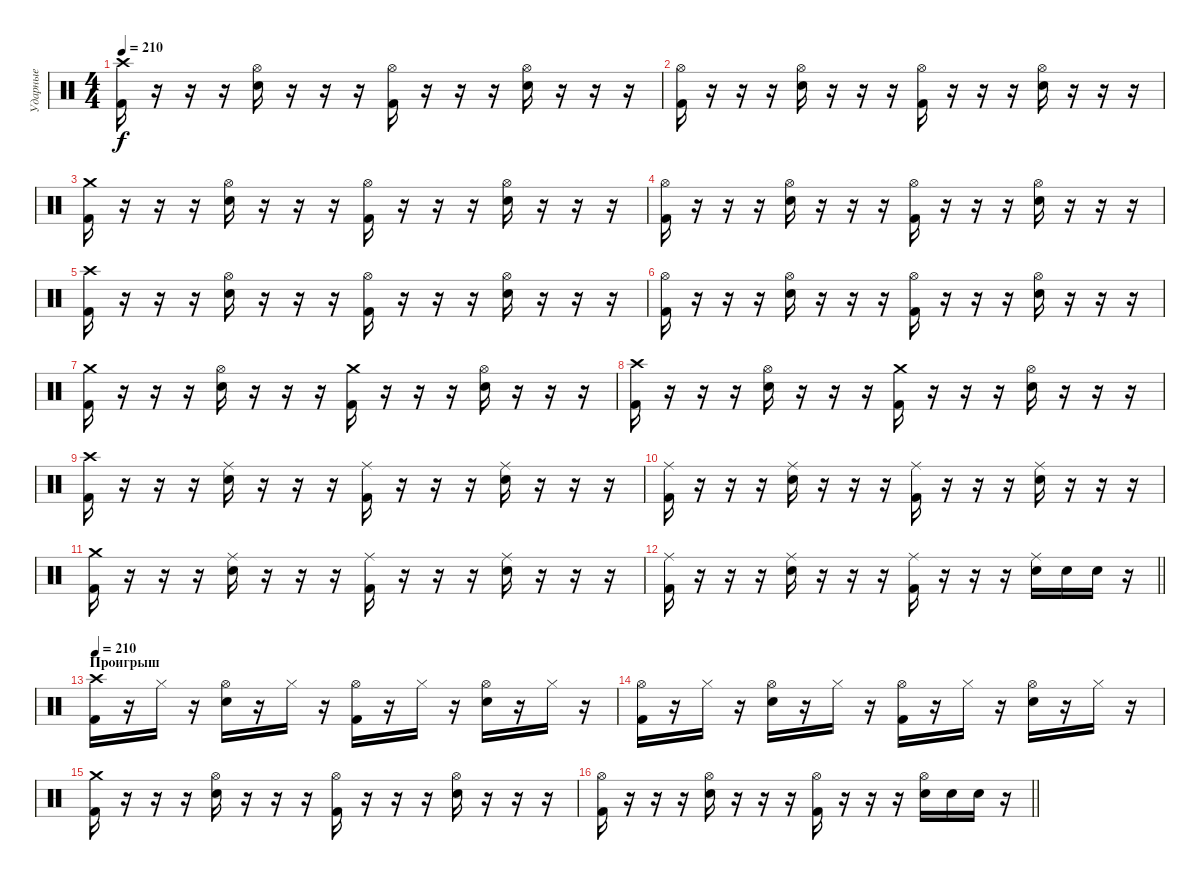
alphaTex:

\track ("Ударные" "Ударные") {instrument percussion}
\staff {score}
\articulation defaults
\ts (4 4)
\tempo 210
\clef neutral
\ks c
("Kick (hit) 2" "Crash high (hit)").16{dy f} r.16 r.16 r.16 ("Electric Snare (hit)" "Hi-Hat (open)").16 r.16 r.16 r.16 ("Kick (hit) 2" "Hi-Hat (open)").16 r.16 r.16 r.16 ("Electric Snare (hit)" "Hi-Hat (open)").16 r.16 r.16 r.16 |
("Kick (hit) 2" "Hi-Hat (open)").16 r.16 r.16 r.16 ("Electric Snare (hit)" "Hi-Hat (open)").16 r.16 r.16 r.16 ("Kick (hit) 2" "Hi-Hat (open)").16 r.16 r.16 r.16 ("Electric Snare (hit)" "Hi-Hat (open)").16 r.16 r.16 r.16 |
("Kick (hit) 2" "Crash medium (hit)").16 r.16 r.16 r.16 ("Electric Snare (hit)" "Hi-Hat (open)").16 r.16 r.16 r.16 ("Kick (hit) 2" "Hi-Hat (open)").16 r.16 r.16 r.16 ("Electric Snare (hit)" "Hi-Hat (open)").16 r.16 r.16 r.16 |
("Kick (hit) 2" "Hi-Hat (open)").16 r.16 r.16 r.16 ("Electric Snare (hit)" "Hi-Hat (open)").16 r.16 r.16 r.16 ("Kick (hit) 2" "Hi-Hat (open)").16 r.16 r.16 r.16 ("Electric Snare (hit)" "Hi-Hat (open)").16 r.16 r.16 r.16 |
("Kick (hit) 2" "Crash high (hit)").16 r.16 r.16 r.16 ("Electric Snare (hit)" "Hi-Hat (open)").16 r.16 r.16 r.16 ("Kick (hit) 2" "Hi-Hat (open)").16 r.16 r.16 r.16 ("Electric Snare (hit)" "Hi-Hat (open)").16 r.16 r.16 r.16 |
("Kick (hit) 2" "Hi-Hat (open)").16 r.16 r.16 r.16 ("Electric Snare (hit)" "Hi-Hat (open)").16 r.16 r.16 r.16 ("Kick (hit) 2" "Hi-Hat (open)").16 r.16 r.16 r.16 ("Electric Snare (hit)" "Hi-Hat (open)").16 r.16 r.16 r.16 |
("Kick (hit) 2" "Crash medium (hit)").16 r.16 r.16 r.16 ("Electric Snare (hit)" "Hi-Hat (open)").16 r.16 r.16 r.16 ("Crash medium (hit)" "Kick (hit) 2").16 r.16 r.16 r.16 ("Electric Snare (hit)" "Hi-Hat (open)").16 r.16 r.16 r.16 |
("Kick (hit) 2" "Crash high (hit)").16 r.16 r.16 r.16 ("Electric Snare (hit)" "Hi-Hat (open)").16 r.16 r.16 r.16 ("Kick (hit) 2" "Crash medium (hit)").16 r.16 r.16 r.16 ("Electric Snare (hit)" "Hi-Hat (open)").16 r.16 r.16 r.16 |
("Kick (hit) 2" "Crash high (hit)").16 r.16 r.16 r.16 ("Electric Snare (hit)" "Ride (middle)").16 r.16 r.16 r.16 ("Kick (hit) 2" "Ride (middle)").16 r.16 r.16 r.16 ("Electric Snare (hit)" "Ride (middle)").16 r.16 r.16 r.16 |
("Kick (hit) 2" "Ride (middle)").16 r.16 r.16 r.16 ("Electric Snare (hit)" "Ride (middle)").16 r.16 r.16 r.16 ("Kick (hit) 2" "Ride (middle)").16 r.16 r.16 r.16 ("Electric Snare (hit)" "Ride (middle)").16 r.16 r.16 r.16 |
("Kick (hit) 2" "Crash medium (hit)").16 r.16 r.16 r.16 ("Electric Snare (hit)" "Ride (middle)").16 r.16 r.16 r.16 ("Kick (hit) 2" "Ride (middle)").16 r.16 r.16 r.16 ("Electric Snare (hit)" "Ride (middle)").16 r.16 r.16 r.16 |
\barLineRight lightlight
("Kick (hit) 2" "Ride (middle)").16 r.16 r.16 r.16 ("Electric Snare (hit)" "Ride (middle)").16 r.16 r.16 r.16 ("Kick (hit) 2" "Ride (middle)").16 r.16 r.16 r.16 ("Electric Snare (hit)" "Ride (middle)").16 "Electric Snare (hit)".16 "Electric Snare (hit)".16 r.16 |
\section ("" "Проигрыш")
\tempo 210
("Kick (hit) 2" "Crash high (hit)").16 r.16 "Hi-Hat (closed)".16 r.16 ("Electric Snare (hit)" "Hi-Hat (open)").16 r.16 "Hi-Hat (closed)".16 r.16 ("Kick (hit) 2" "Hi-Hat (open)").16 r.16 "Hi-Hat (closed)".16 r.16 ("Electric Snare (hit)" "Hi-Hat (open)").16 r.16 "Hi-Hat (closed)".16 r.16 |
("Kick (hit) 2" "Hi-Hat (open)").16 r.16 "Hi-Hat (closed)".16 r.16 ("Electric Snare (hit)" "Hi-Hat (open)").16 r.16 "Hi-Hat (closed)".16 r.16 ("Kick (hit) 2" "Hi-Hat (open)").16 r.16 "Hi-Hat (closed)".16 r.16 ("Electric Snare (hit)" "Hi-Hat (open)").16 r.16 "Hi-Hat (closed)".16 r.16 |
("Kick (hit) 2" "Crash medium (hit)").16 r.16 r.16 r.16 ("Electric Snare (hit)" "Hi-Hat (open)").16 r.16 r.16 r.16 ("Kick (hit) 2" "Hi-Hat (open)").16 r.16 r.16 r.16 ("Electric Snare (hit)" "Hi-Hat (open)").16 r.16 r.16 r.16 |
\barLineRight lightlight
("Kick (hit) 2" "Hi-Hat (open)").16 r.16 r.16 r.16 ("Electric Snare (hit)" "Hi-Hat (open)").16 r.16 r.16 r.16 ("Kick (hit) 2" "Hi-Hat (open)").16 r.16 r.16 r.16 ("Electric Snare (hit)" "Hi-Hat (open)").16 "Electric Snare (hit)".16 "Electric Snare (hit)".16 r.16
